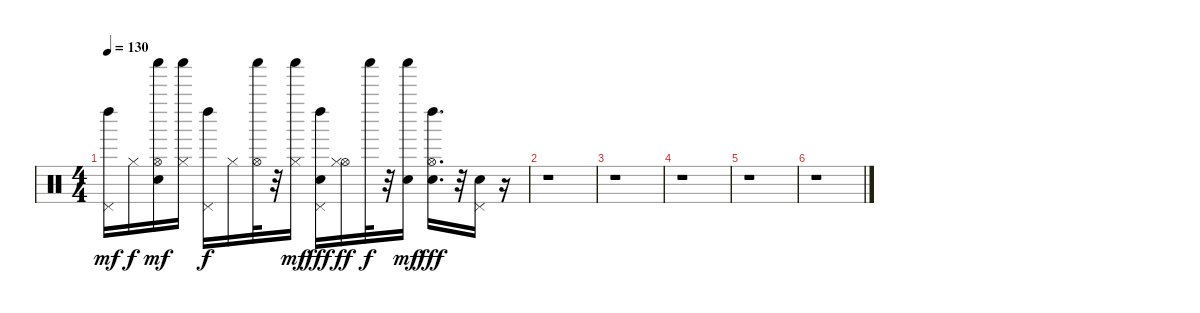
\track "" {instrument percussion}
\staff {score}
\articulation defaults
\ts (4 4)
\tempo 130
\clef neutral
\ks c
("Left Maraca (hit)" "Pedal Hi-Hat (hit)").16{dy mf} "Hi-Hat (closed)".16{dy f} ("Snare (hit) 2" "Hi-Hat (open)" "Shaker (hit)").16{dy mf} ("Shaker (hit)" "Hi-Hat (closed)").16 ("Left Maraca (hit)" "Pedal Hi-Hat (hit)").16{dy f} "Hi-Hat (closed)".16 ("Shaker (hit)" "Hi-Hat (open)").32 r.32 ("Shaker (hit)" "Hi-Hat (closed)").16{dy mf} ("Snare (hit) 2" "Left Maraca (hit)" "Pedal Hi-Hat (hit)").16{dy fff} ("Hi-Hat (open)" "Hi-Hat (closed)").16{dy ff} "Shaker (hit)".32{dy f} r.32 ("Electric Snare (hit)" "Shaker (hit)").16{dy mf} ("Left Maraca (hit)" "Electric Snare (hit)" "Hi-Hat (open)").16{d dy fff} r.32 ("Electric Snare (hit)" "Pedal Hi-Hat (hit)").16 r.16 |
r.1 |
r.1 |
r.1 |
r.1 |
r.1
